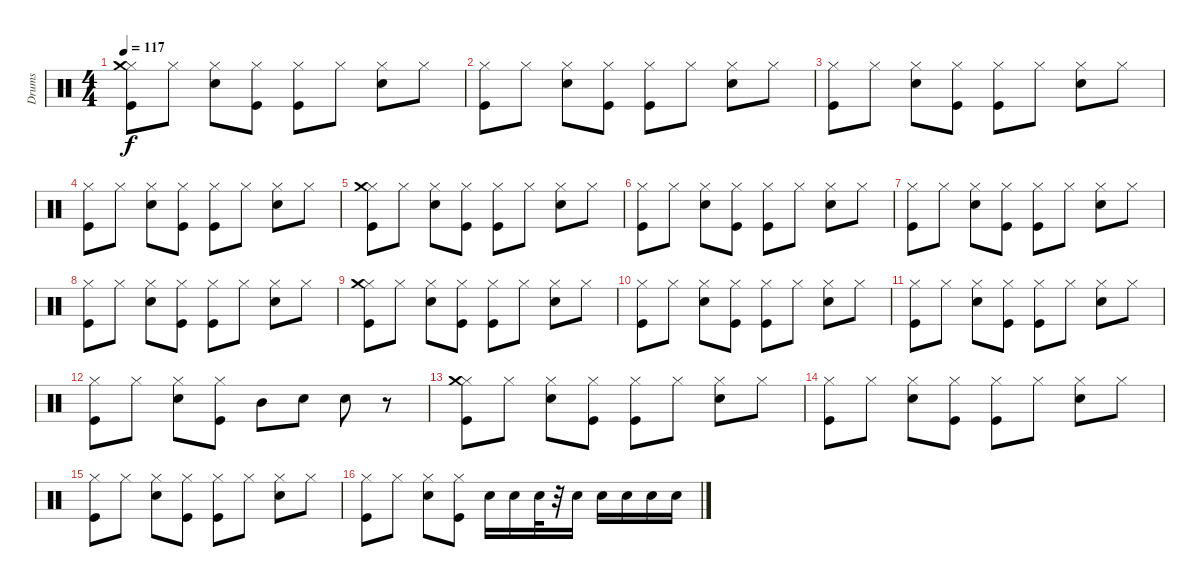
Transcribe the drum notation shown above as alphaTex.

\track ("Drums" "Drums") {instrument percussion}
\staff {score}
\articulation defaults
\ts (4 4)
\tempo 117
\clef neutral
\ks c
("Kick (hit)" "Hi-Hat (closed)" "Crash medium (hit)").8{dy f} "Hi-Hat (closed)".8 ("Snare (hit) 2" "Hi-Hat (closed)").8 ("Kick (hit)" "Hi-Hat (closed)").8 ("Hi-Hat (closed)" "Kick (hit)").8 "Hi-Hat (closed)".8 ("Snare (hit) 2" "Hi-Hat (closed)").8 "Hi-Hat (closed)".8 |
("Kick (hit)" "Hi-Hat (closed)").8 "Hi-Hat (closed)".8 ("Snare (hit) 2" "Hi-Hat (closed)").8 ("Kick (hit)" "Hi-Hat (closed)").8 ("Hi-Hat (closed)" "Kick (hit)").8 "Hi-Hat (closed)".8 ("Snare (hit) 2" "Hi-Hat (closed)").8 "Hi-Hat (closed)".8 |
("Kick (hit)" "Hi-Hat (closed)").8 "Hi-Hat (closed)".8 ("Snare (hit) 2" "Hi-Hat (closed)").8 ("Kick (hit)" "Hi-Hat (closed)").8 ("Hi-Hat (closed)" "Kick (hit)").8 "Hi-Hat (closed)".8 ("Snare (hit) 2" "Hi-Hat (closed)").8 "Hi-Hat (closed)".8 |
("Kick (hit)" "Hi-Hat (closed)").8 "Hi-Hat (closed)".8 ("Snare (hit) 2" "Hi-Hat (closed)").8 ("Kick (hit)" "Hi-Hat (closed)").8 ("Hi-Hat (closed)" "Kick (hit)").8 "Hi-Hat (closed)".8 ("Snare (hit) 2" "Hi-Hat (closed)").8 "Hi-Hat (closed)".8 |
("Kick (hit)" "Hi-Hat (closed)" "Crash medium (hit)").8 "Hi-Hat (closed)".8 ("Snare (hit) 2" "Hi-Hat (closed)").8 ("Kick (hit)" "Hi-Hat (closed)").8 ("Hi-Hat (closed)" "Kick (hit)").8 "Hi-Hat (closed)".8 ("Snare (hit) 2" "Hi-Hat (closed)").8 "Hi-Hat (closed)".8 |
("Kick (hit)" "Hi-Hat (closed)").8 "Hi-Hat (closed)".8 ("Snare (hit) 2" "Hi-Hat (closed)").8 ("Kick (hit)" "Hi-Hat (closed)").8 ("Hi-Hat (closed)" "Kick (hit)").8 "Hi-Hat (closed)".8 ("Snare (hit) 2" "Hi-Hat (closed)").8 "Hi-Hat (closed)".8 |
("Kick (hit)" "Hi-Hat (closed)").8 "Hi-Hat (closed)".8 ("Snare (hit) 2" "Hi-Hat (closed)").8 ("Kick (hit)" "Hi-Hat (closed)").8 ("Hi-Hat (closed)" "Kick (hit)").8 "Hi-Hat (closed)".8 ("Snare (hit) 2" "Hi-Hat (closed)").8 "Hi-Hat (closed)".8 |
("Kick (hit)" "Hi-Hat (closed)").8 "Hi-Hat (closed)".8 ("Snare (hit) 2" "Hi-Hat (closed)").8 ("Kick (hit)" "Hi-Hat (closed)").8 ("Hi-Hat (closed)" "Kick (hit)").8 "Hi-Hat (closed)".8 ("Snare (hit) 2" "Hi-Hat (closed)").8 "Hi-Hat (closed)".8 |
("Kick (hit)" "Hi-Hat (closed)" "Crash medium (hit)").8 "Hi-Hat (closed)".8 ("Snare (hit) 2" "Hi-Hat (closed)").8 ("Kick (hit)" "Hi-Hat (closed)").8 ("Hi-Hat (closed)" "Kick (hit)").8 "Hi-Hat (closed)".8 ("Snare (hit) 2" "Hi-Hat (closed)").8 "Hi-Hat (closed)".8 |
("Kick (hit)" "Hi-Hat (closed)").8 "Hi-Hat (closed)".8 ("Snare (hit) 2" "Hi-Hat (closed)").8 ("Kick (hit)" "Hi-Hat (closed)").8 ("Hi-Hat (closed)" "Kick (hit)").8 "Hi-Hat (closed)".8 ("Snare (hit) 2" "Hi-Hat (closed)").8 "Hi-Hat (closed)".8 |
("Kick (hit)" "Hi-Hat (closed)").8 "Hi-Hat (closed)".8 ("Snare (hit) 2" "Hi-Hat (closed)").8 ("Kick (hit)" "Hi-Hat (closed)").8 ("Hi-Hat (closed)" "Kick (hit)").8 "Hi-Hat (closed)".8 ("Snare (hit) 2" "Hi-Hat (closed)").8 "Hi-Hat (closed)".8 |
("Kick (hit)" "Hi-Hat (closed)").8 "Hi-Hat (closed)".8 ("Snare (hit) 2" "Hi-Hat (closed)").8 ("Kick (hit)" "Hi-Hat (closed)").8 "Mid Tom (hit)".8 "Snare (hit) 2".8 "Snare (hit) 2".8 r.8 |
("Kick (hit)" "Hi-Hat (closed)" "Crash medium (hit)").8 "Hi-Hat (closed)".8 ("Snare (hit) 2" "Hi-Hat (closed)").8 ("Kick (hit)" "Hi-Hat (closed)").8 ("Hi-Hat (closed)" "Kick (hit)").8 "Hi-Hat (closed)".8 ("Snare (hit) 2" "Hi-Hat (closed)").8 "Hi-Hat (closed)".8 |
("Kick (hit)" "Hi-Hat (closed)").8 "Hi-Hat (closed)".8 ("Snare (hit) 2" "Hi-Hat (closed)").8 ("Kick (hit)" "Hi-Hat (closed)").8 ("Hi-Hat (closed)" "Kick (hit)").8 "Hi-Hat (closed)".8 ("Snare (hit) 2" "Hi-Hat (closed)").8 "Hi-Hat (closed)".8 |
("Kick (hit)" "Hi-Hat (closed)").8 "Hi-Hat (closed)".8 ("Snare (hit) 2" "Hi-Hat (closed)").8 ("Kick (hit)" "Hi-Hat (closed)").8 ("Hi-Hat (closed)" "Kick (hit)").8 "Hi-Hat (closed)".8 ("Snare (hit) 2" "Hi-Hat (closed)").8 "Hi-Hat (closed)".8 |
("Kick (hit)" "Hi-Hat (closed)").8 "Hi-Hat (closed)".8 ("Snare (hit) 2" "Hi-Hat (closed)").8 ("Kick (hit)" "Hi-Hat (closed)").8 "Snare (hit) 2".16 "Snare (hit) 2".16 "Snare (hit) 2".32 r.32 "Snare (hit) 2".16 "Electric Snare (hit)".16 "Electric Snare (hit)".16 "Electric Snare (hit)".16 "Electric Snare (hit)".16
